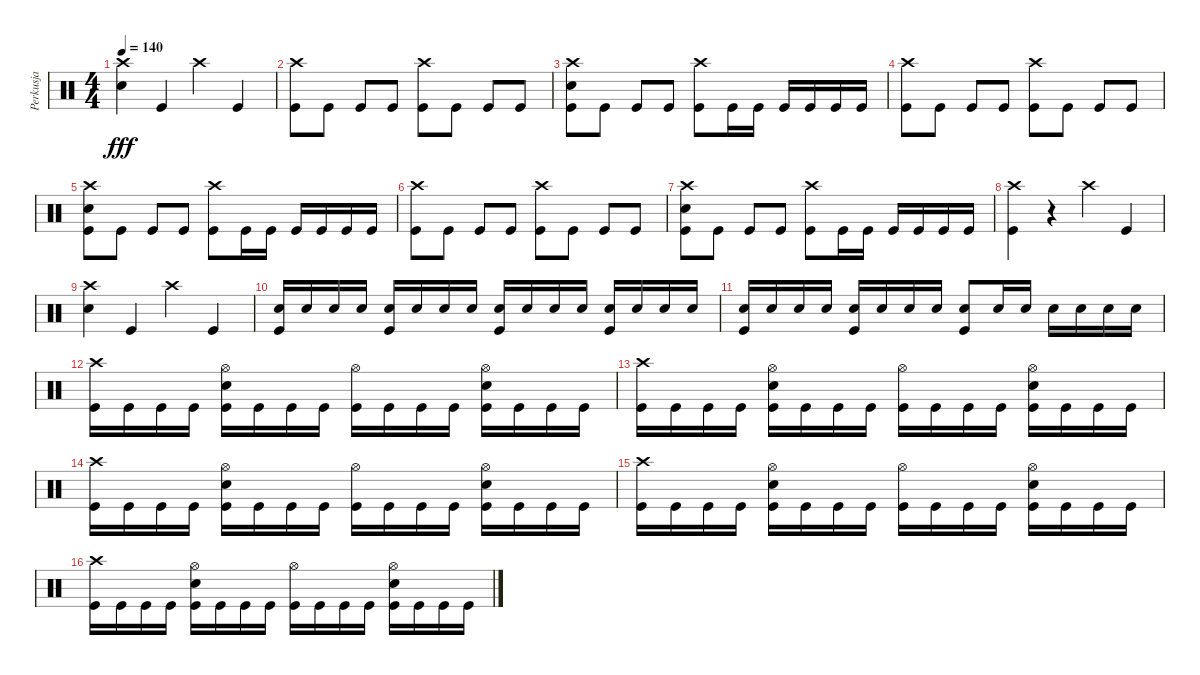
\track ("Perkusja" "Perkusja") {instrument percussion}
\staff {score}
\articulation defaults
\ts (4 4)
\tempo 140
\clef neutral
\ks c
("Crash high (hit)" "Electric Snare (hit)").4{dy fff} "Kick (hit)".4 "Crash high (hit)".4 "Kick (hit)".4 |
("Crash high (hit)" "Kick (hit)").8 "Kick (hit)".8 "Kick (hit)".8 "Kick (hit)".8 ("Crash high (hit)" "Kick (hit)").8 "Kick (hit)".8 "Kick (hit)".8 "Kick (hit)".8 |
("Crash high (hit)" "Electric Snare (hit)" "Kick (hit)").8 "Kick (hit)".8 "Kick (hit)".8 "Kick (hit)".8 ("Crash high (hit)" "Kick (hit)").8 "Kick (hit)".16 "Kick (hit)".16 "Kick (hit)".16 "Kick (hit)".16 "Kick (hit)".16 "Kick (hit)".16 |
("Crash high (hit)" "Kick (hit)").8 "Kick (hit)".8 "Kick (hit)".8 "Kick (hit)".8 ("Crash high (hit)" "Kick (hit)").8 "Kick (hit)".8 "Kick (hit)".8 "Kick (hit)".8 |
("Crash high (hit)" "Electric Snare (hit)" "Kick (hit)").8 "Kick (hit)".8 "Kick (hit)".8 "Kick (hit)".8 ("Crash high (hit)" "Kick (hit)").8 "Kick (hit)".16 "Kick (hit)".16 "Kick (hit)".16 "Kick (hit)".16 "Kick (hit)".16 "Kick (hit)".16 |
("Crash high (hit)" "Kick (hit)").8 "Kick (hit)".8 "Kick (hit)".8 "Kick (hit)".8 ("Crash high (hit)" "Kick (hit)").8 "Kick (hit)".8 "Kick (hit)".8 "Kick (hit)".8 |
("Crash high (hit)" "Electric Snare (hit)" "Kick (hit)").8 "Kick (hit)".8 "Kick (hit)".8 "Kick (hit)".8 ("Crash high (hit)" "Kick (hit)").8 "Kick (hit)".16 "Kick (hit)".16 "Kick (hit)".16 "Kick (hit)".16 "Kick (hit)".16 "Kick (hit)".16 |
("Crash high (hit)" "Kick (hit)").4 r.4 "Crash high (hit)".4 "Kick (hit)".4 |
("Crash high (hit)" "Electric Snare (hit)").4 "Kick (hit)".4 "Crash high (hit)".4 "Kick (hit)".4 |
("Electric Snare (hit)" "Kick (hit)").16 "Electric Snare (hit)".16 "Electric Snare (hit)".16 "Electric Snare (hit)".16 ("Electric Snare (hit)" "Kick (hit)").16 "Electric Snare (hit)".16 "Electric Snare (hit)".16 "Electric Snare (hit)".16 ("Electric Snare (hit)" "Kick (hit)").16 "Electric Snare (hit)".16 "Electric Snare (hit)".16 "Electric Snare (hit)".16 ("Electric Snare (hit)" "Kick (hit)").16 "Electric Snare (hit)".16 "Electric Snare (hit)".16 "Electric Snare (hit)".16 |
("Electric Snare (hit)" "Kick (hit)").16 "Electric Snare (hit)".16 "Electric Snare (hit)".16 "Electric Snare (hit)".16 ("Electric Snare (hit)" "Kick (hit)").16 "Electric Snare (hit)".16 "Electric Snare (hit)".16 "Electric Snare (hit)".16 ("Electric Snare (hit)" "Kick (hit)").8 "Electric Snare (hit)".16 "Electric Snare (hit)".16 "Electric Snare (hit)".16 "Electric Snare (hit)".16 "Electric Snare (hit)".16 "Electric Snare (hit)".16 |
("Crash high (hit)" "Kick (hit)").16 "Kick (hit)".16 "Kick (hit)".16 "Kick (hit)".16 ("Hi-Hat (open)" "Electric Snare (hit)" "Kick (hit)").16 "Kick (hit)".16 "Kick (hit)".16 "Kick (hit)".16 ("Hi-Hat (open)" "Kick (hit)").16 "Kick (hit)".16 "Kick (hit)".16 "Kick (hit)".16 ("Hi-Hat (open)" "Electric Snare (hit)" "Kick (hit)").16 "Kick (hit)".16 "Kick (hit)".16 "Kick (hit)".16 |
("Crash high (hit)" "Kick (hit)").16 "Kick (hit)".16 "Kick (hit)".16 "Kick (hit)".16 ("Hi-Hat (open)" "Electric Snare (hit)" "Kick (hit)").16 "Kick (hit)".16 "Kick (hit)".16 "Kick (hit)".16 ("Hi-Hat (open)" "Kick (hit)").16 "Kick (hit)".16 "Kick (hit)".16 "Kick (hit)".16 ("Hi-Hat (open)" "Electric Snare (hit)" "Kick (hit)").16 "Kick (hit)".16 "Kick (hit)".16 "Kick (hit)".16 |
("Crash high (hit)" "Kick (hit)").16 "Kick (hit)".16 "Kick (hit)".16 "Kick (hit)".16 ("Hi-Hat (open)" "Electric Snare (hit)" "Kick (hit)").16 "Kick (hit)".16 "Kick (hit)".16 "Kick (hit)".16 ("Hi-Hat (open)" "Kick (hit)").16 "Kick (hit)".16 "Kick (hit)".16 "Kick (hit)".16 ("Hi-Hat (open)" "Electric Snare (hit)" "Kick (hit)").16 "Kick (hit)".16 "Kick (hit)".16 "Kick (hit)".16 |
("Crash high (hit)" "Kick (hit)").16 "Kick (hit)".16 "Kick (hit)".16 "Kick (hit)".16 ("Hi-Hat (open)" "Electric Snare (hit)" "Kick (hit)").16 "Kick (hit)".16 "Kick (hit)".16 "Kick (hit)".16 ("Hi-Hat (open)" "Kick (hit)").16 "Kick (hit)".16 "Kick (hit)".16 "Kick (hit)".16 ("Hi-Hat (open)" "Electric Snare (hit)" "Kick (hit)").16 "Kick (hit)".16 "Kick (hit)".16 "Kick (hit)".16 |
("Crash high (hit)" "Kick (hit)").16 "Kick (hit)".16 "Kick (hit)".16 "Kick (hit)".16 ("Hi-Hat (open)" "Electric Snare (hit)" "Kick (hit)").16 "Kick (hit)".16 "Kick (hit)".16 "Kick (hit)".16 ("Hi-Hat (open)" "Kick (hit)").16 "Kick (hit)".16 "Kick (hit)".16 "Kick (hit)".16 ("Hi-Hat (open)" "Electric Snare (hit)" "Kick (hit)").16 "Kick (hit)".16 "Kick (hit)".16 "Kick (hit)".16
